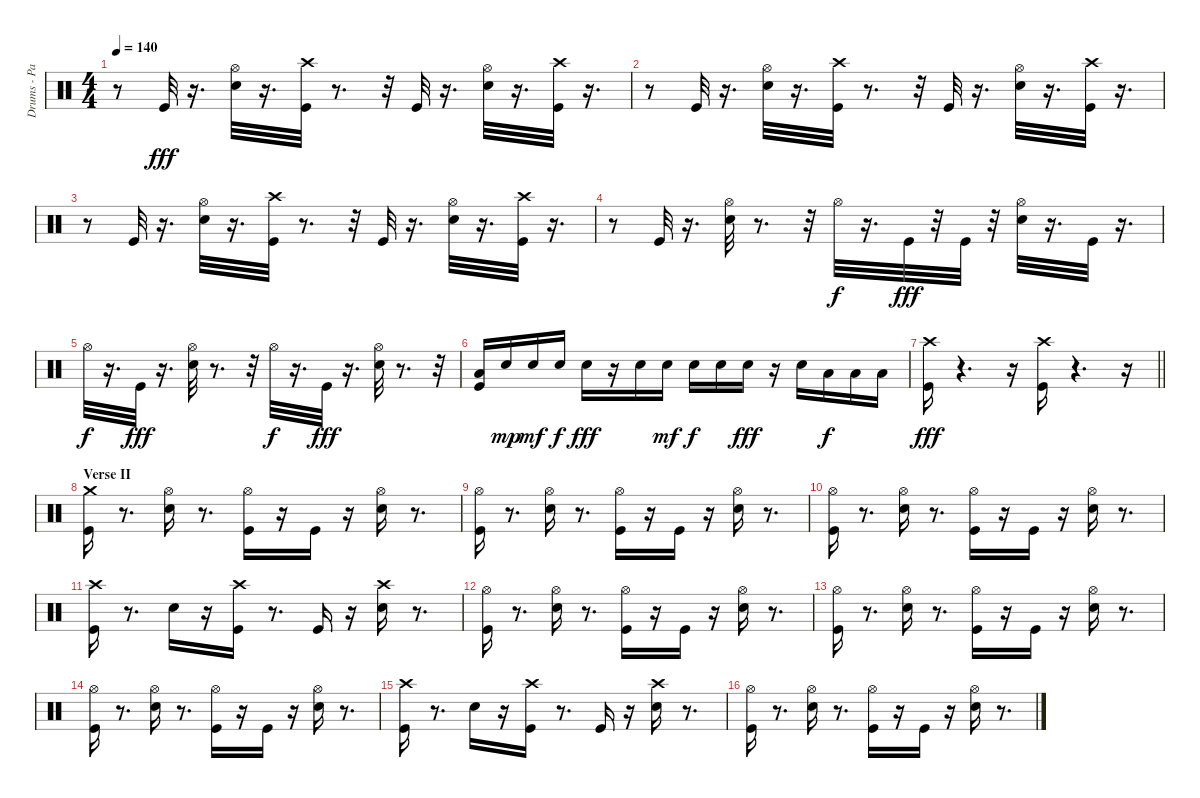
\track ("Drums - Paice" "Drums - Pa") {instrument percussion}
\staff {score}
\articulation defaults
\ts (4 4)
\tempo 140
\clef neutral
\ks c
r.8{dy fff} "Kick (hit)".32 r.16{d} ("Snare (hit) 2" "Hi-Hat (open)").32 r.16{d} ("Kick (hit)" "Crash high (hit)").32 r.8{d} r.32 "Kick (hit)".32 r.16{d} ("Hi-Hat (open)" "Snare (hit) 2").32 r.16{d} ("Crash high (hit)" "Kick (hit)").32 r.16{d} |
r.8 "Kick (hit)".32 r.16{d} ("Hi-Hat (open)" "Snare (hit) 2").32 r.16{d} ("Crash high (hit)" "Kick (hit)").32 r.8{d} r.32 "Kick (hit)".32 r.16{d} ("Hi-Hat (open)" "Snare (hit) 2").32 r.16{d} ("Crash high (hit)" "Kick (hit)").32 r.16{d} |
r.8 "Kick (hit)".32 r.16{d} ("Snare (hit) 2" "Hi-Hat (open)").32 r.16{d} ("Crash high (hit)" "Kick (hit)").32 r.8{d} r.32 "Kick (hit)".32 r.16{d} ("Hi-Hat (open)" "Snare (hit) 2").32 r.16{d} ("Crash high (hit)" "Kick (hit)").32 r.16{d} |
r.8 "Kick (hit)".32 r.16{d} ("Snare (hit) 2" "Hi-Hat (open)").32 r.8{d} r.32 "Hi-Hat (open)".32{dy f} r.16{d} "Kick (hit)".32{dy fff} r.32 "Kick (hit)".32 r.32 ("Snare (hit) 2" "Hi-Hat (open)").32 r.16{d} "Kick (hit)".32 r.16{d} |
"Hi-Hat (open)".32{dy f} r.16{d} "Kick (hit)".32{dy fff} r.16{d} ("Snare (hit) 2" "Hi-Hat (open)").32 r.8{d} r.32 "Hi-Hat (open)".32{dy f} r.16{d} "Kick (hit)".32{dy fff} r.16{d} ("Snare (hit) 2" "Hi-Hat (open)").32 r.8{d} r.32 |
("Kick (hit)" "Low Tom (hit)").16 "Snare (hit) 2".16{dy mp} "Snare (hit) 2".16{dy mf} "Snare (hit) 2".16{dy f} "Snare (hit) 2".16{dy fff} r.16 "Snare (hit) 2".16 "Snare (hit) 2".16{dy mf} "Snare (hit) 2".16{dy f} "Snare (hit) 2".16 "Snare (hit) 2".16{dy fff} r.16 "Snare (hit) 2".16 "Low Tom (hit)".16{dy f} "Low Tom (hit)".16 "Low Tom (hit)".16 |
\barLineRight lightlight
("Kick (hit)" "Crash high (hit)").16{dy fff} r.4{d} r.16 ("Kick (hit)" "Crash high (hit)").16 r.4{d} r.16 |
\section ("" "Verse II")
("Kick (hit)" "Crash medium (hit)").16 r.8{d} ("Snare (hit) 2" "Hi-Hat (open)").16 r.8{d} ("Kick (hit)" "Hi-Hat (open)").16 r.16 "Kick (hit)".16 r.16 ("Hi-Hat (open)" "Snare (hit) 2").16 r.8{d} |
("Hi-Hat (open)" "Kick (hit)").16 r.8{d} ("Snare (hit) 2" "Hi-Hat (open)").16 r.8{d} ("Kick (hit)" "Hi-Hat (open)").16 r.16 "Kick (hit)".16 r.16 ("Snare (hit) 2" "Hi-Hat (open)").16 r.8{d} |
("Hi-Hat (open)" "Kick (hit)").16 r.8{d} ("Hi-Hat (open)" "Snare (hit) 2").16 r.8{d} ("Hi-Hat (open)" "Kick (hit)").16 r.16 "Kick (hit)".16 r.16 ("Snare (hit) 2" "Hi-Hat (open)").16 r.8{d} |
("Crash high (hit)" "Kick (hit)").16 r.8{d} "Snare (hit) 2".16 r.16 ("Crash high (hit)" "Kick (hit)").16 r.8{d} "Kick (hit)".16 r.16 ("Crash high (hit)" "Snare (hit) 2").16 r.8{d} |
("Hi-Hat (open)" "Kick (hit)").16 r.8{d} ("Hi-Hat (open)" "Snare (hit) 2").16 r.8{d} ("Hi-Hat (open)" "Kick (hit)").16 r.16 "Kick (hit)".16 r.16 ("Hi-Hat (open)" "Snare (hit) 2").16 r.8{d} |
("Kick (hit)" "Hi-Hat (open)").16 r.8{d} ("Hi-Hat (open)" "Snare (hit) 2").16 r.8{d} ("Hi-Hat (open)" "Kick (hit)").16 r.16 "Kick (hit)".16 r.16 ("Hi-Hat (open)" "Snare (hit) 2").16 r.8{d} |
("Kick (hit)" "Hi-Hat (open)").16 r.8{d} ("Hi-Hat (open)" "Snare (hit) 2").16 r.8{d} ("Hi-Hat (open)" "Kick (hit)").16 r.16 "Kick (hit)".16 r.16 ("Hi-Hat (open)" "Snare (hit) 2").16 r.8{d} |
("Kick (hit)" "Crash high (hit)").16 r.8{d} "Snare (hit) 2".16 r.16 ("Crash high (hit)" "Kick (hit)").16 r.8{d} "Kick (hit)".16 r.16 ("Crash high (hit)" "Snare (hit) 2").16 r.8{d} |
("Hi-Hat (open)" "Kick (hit)").16 r.8{d} ("Snare (hit) 2" "Hi-Hat (open)").16 r.8{d} ("Hi-Hat (open)" "Kick (hit)").16 r.16 "Kick (hit)".16 r.16 ("Snare (hit) 2" "Hi-Hat (open)").16 r.8{d}
